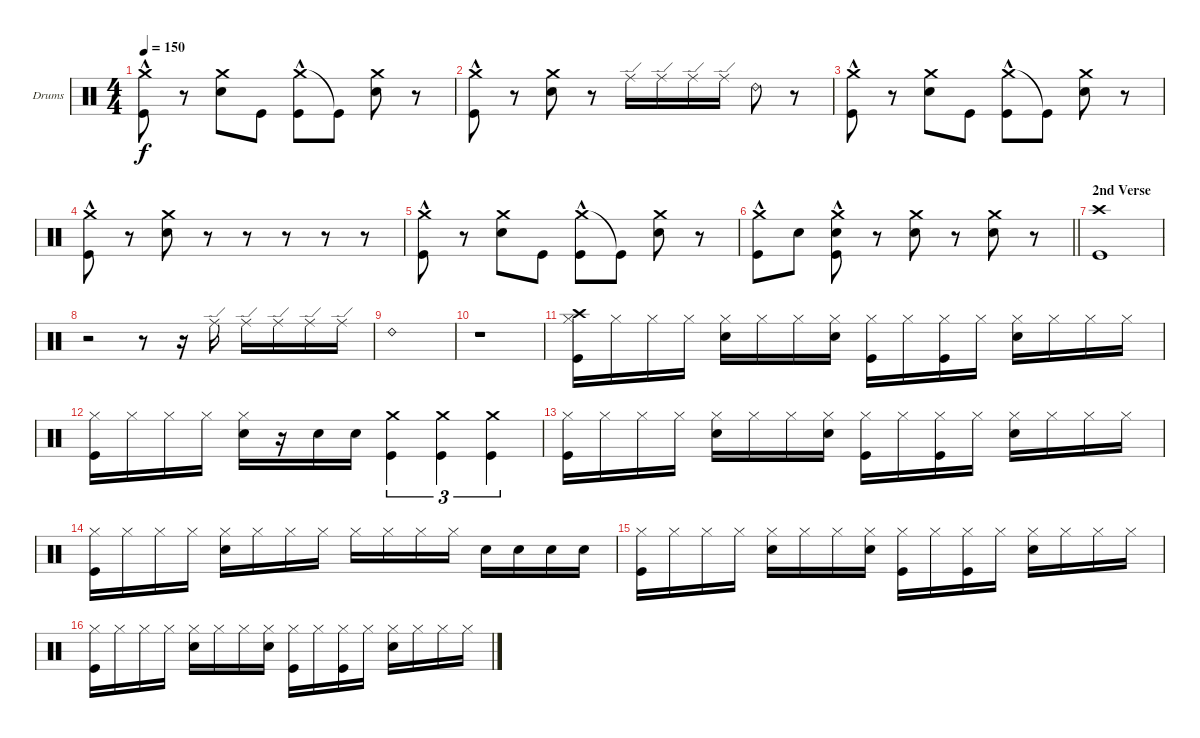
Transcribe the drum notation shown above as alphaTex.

\bracketExtendMode groupsimilarinstruments
\firstSystemTrackNameOrientation horizontal
\otherSystemsTrackNameOrientation horizontal
\track ("Drumkit" "Drums") {instrument percussion}
\staff {score}
\articulation defaults
\ts (4 4)
\tempo 150
\clef neutral
\ks c
("Crash medium (hit)" "Kick (hit)"{hac}).8{dy f} r.8 ("Crash medium (hit)" "Snare (hit) 2").8 "Kick (hit)".8 ("Crash medium (hit)" "Kick (hit)"{hac}).8 "Kick (hit)"{t}.8 ("Crash medium (hit)" "Snare (hit) 2").8 r.8 |
("Crash medium (hit)" "Kick (hit)"{hac}).8 r.8 ("Crash medium (hit)" "Snare (hit) 2").8 r.8 "Ride (edge)".16 "Ride (edge)".16 "Ride (edge)".16 "Ride (edge)".16 "Ride (bell) 2".8 r.8 |
("Crash medium (hit)" "Kick (hit)"{hac}).8 r.8 ("Crash medium (hit)" "Snare (hit) 2").8 "Kick (hit)".8 ("Crash medium (hit)" "Kick (hit)"{hac}).8 "Kick (hit)"{t}.8 ("Crash medium (hit)" "Snare (hit) 2").8 r.8 |
("Crash medium (hit)" "Kick (hit)"{hac}).8 r.8 ("Crash medium (hit)" "Snare (hit) 2").8 r.8 r.8 r.8 r.8 r.8 |
("Crash medium (hit)" "Kick (hit)"{hac}).8 r.8 ("Crash medium (hit)" "Snare (hit) 2").8 "Kick (hit)".8 ("Crash medium (hit)" "Kick (hit)"{hac}).8 "Kick (hit)"{t}.8 ("Crash medium (hit)" "Snare (hit) 2").8 r.8 |
\barLineRight lightlight
("Crash medium (hit)" "Kick (hit)"{hac}).8 "Snare (hit) 2".8 ("Crash medium (hit)" "Snare (hit) 2" "Kick (hit)"{hac}).8 r.8 ("Crash medium (hit)" "Snare (hit) 2").8 r.8 ("Crash medium (hit)" "Snare (hit) 2").8 r.8 |
\section ("" "2nd Verse")
("Crash high (hit)" "Kick (hit)").1 |
r.2 r.8 r.16 "Ride (edge)".16 "Ride (edge)".16 "Ride (edge)".16 "Ride (edge)".16 "Ride (edge)".16 |
"Ride (bell) 2".1 |
r.1 |
("Hi-Hat (closed)" "Crash high (hit)" "Kick (hit)").16 "Hi-Hat (closed)".16 "Hi-Hat (closed)".16 "Hi-Hat (closed)".16 ("Hi-Hat (closed)" "Snare (hit) 2").16 "Hi-Hat (closed)".16 "Hi-Hat (closed)".16 ("Hi-Hat (closed)" "Snare (hit) 2").16 ("Hi-Hat (closed)" "Kick (hit)").16 "Hi-Hat (closed)".16 ("Hi-Hat (closed)" "Kick (hit)").16 "Hi-Hat (closed)".16 ("Hi-Hat (closed)" "Snare (hit) 2").16 "Hi-Hat (closed)".16 "Hi-Hat (closed)".16 "Hi-Hat (closed)".16 |
("Hi-Hat (closed)" "Kick (hit)").16 "Hi-Hat (closed)".16 "Hi-Hat (closed)".16 "Hi-Hat (closed)".16 ("Hi-Hat (closed)" "Snare (hit) 2").16 r.16 "Snare (hit) 2".16 "Snare (hit) 2".16 ("Kick (hit)" "Crash medium (hit)").4{tu (3 2)} ("Kick (hit)" "Crash medium (hit)").4{tu (3 2)} ("Kick (hit)" "Crash medium (hit)").4{tu (3 2)} |
("Hi-Hat (closed)" "Kick (hit)").16 "Hi-Hat (closed)".16 "Hi-Hat (closed)".16 "Hi-Hat (closed)".16 ("Hi-Hat (closed)" "Snare (hit) 2").16 "Hi-Hat (closed)".16 "Hi-Hat (closed)".16 ("Hi-Hat (closed)" "Snare (hit) 2").16 ("Hi-Hat (closed)" "Kick (hit)").16 "Hi-Hat (closed)".16 ("Hi-Hat (closed)" "Kick (hit)").16 "Hi-Hat (closed)".16 ("Hi-Hat (closed)" "Snare (hit) 2").16 "Hi-Hat (closed)".16 "Hi-Hat (closed)".16 "Hi-Hat (closed)".16 |
("Hi-Hat (closed)" "Kick (hit)").16 "Hi-Hat (closed)".16 "Hi-Hat (closed)".16 "Hi-Hat (closed)".16 ("Hi-Hat (closed)" "Snare (hit) 2").16 "Hi-Hat (closed)".16 "Hi-Hat (closed)".16 "Hi-Hat (closed)".16 "Hi-Hat (closed)".16 "Hi-Hat (closed)".16 "Hi-Hat (closed)".16 "Hi-Hat (closed)".16 "Snare (hit) 2".16 "Snare (hit) 2".16 "Snare (hit) 2".16 "Snare (hit) 2".16 |
("Hi-Hat (closed)" "Kick (hit)").16 "Hi-Hat (closed)".16 "Hi-Hat (closed)".16 "Hi-Hat (closed)".16 ("Hi-Hat (closed)" "Snare (hit) 2").16 "Hi-Hat (closed)".16 "Hi-Hat (closed)".16 ("Hi-Hat (closed)" "Snare (hit) 2").16 ("Hi-Hat (closed)" "Kick (hit)").16 "Hi-Hat (closed)".16 ("Hi-Hat (closed)" "Kick (hit)").16 "Hi-Hat (closed)".16 ("Hi-Hat (closed)" "Snare (hit) 2").16 "Hi-Hat (closed)".16 "Hi-Hat (closed)".16 "Hi-Hat (closed)".16 |
("Hi-Hat (closed)" "Kick (hit)").16 "Hi-Hat (closed)".16 "Hi-Hat (closed)".16 "Hi-Hat (closed)".16 ("Hi-Hat (closed)" "Snare (hit) 2").16 "Hi-Hat (closed)".16 "Hi-Hat (closed)".16 ("Hi-Hat (closed)" "Snare (hit) 2").16 ("Hi-Hat (closed)" "Kick (hit)").16 "Hi-Hat (closed)".16 ("Hi-Hat (closed)" "Kick (hit)").16 "Hi-Hat (closed)".16 ("Hi-Hat (closed)" "Snare (hit) 2").16 "Hi-Hat (closed)".16 "Hi-Hat (closed)".16 "Hi-Hat (closed)".16
